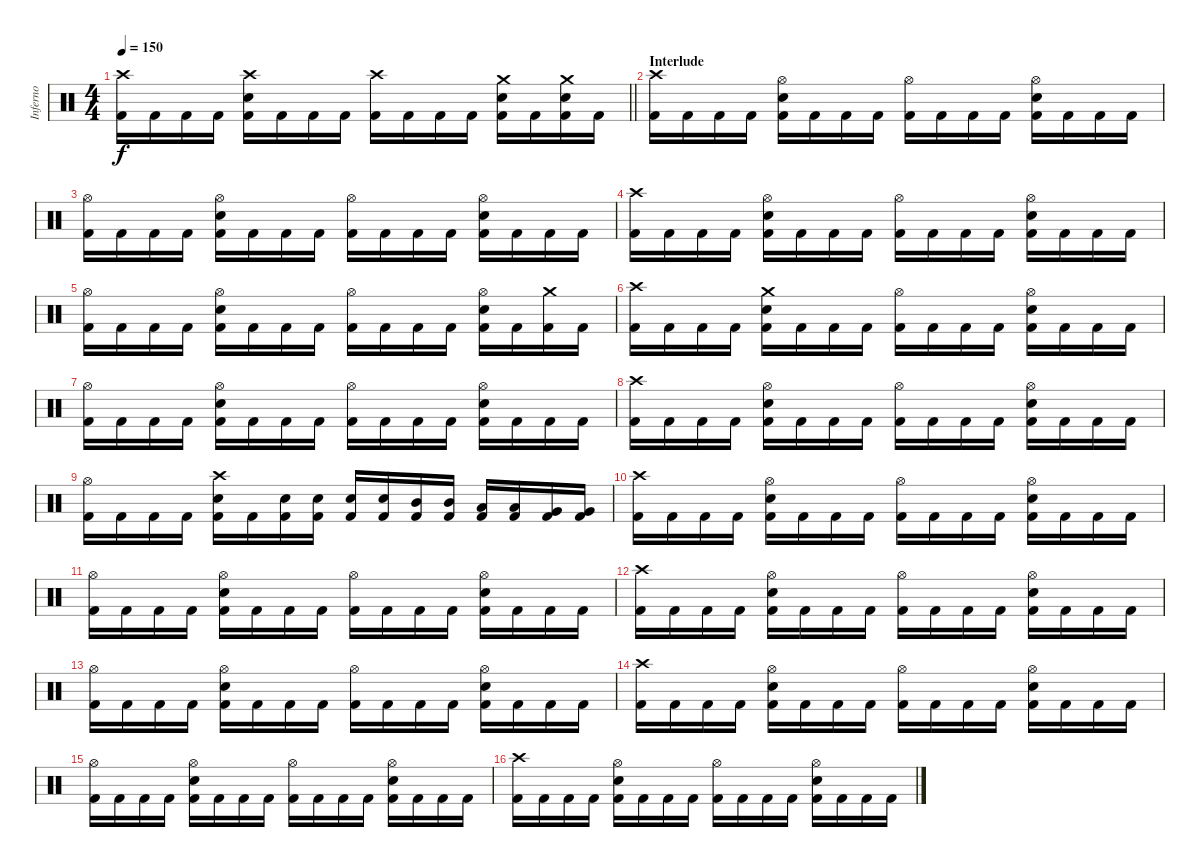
\track ("Inferno" "Inferno") {instrument percussion}
\staff {score}
\articulation defaults
\ts (4 4)
\tempo 150
\clef neutral
\barLineRight lightlight
\ks c
("Crash high (hit)" "Kick (hit) 2").16{dy f} "Kick (hit) 2".16 "Kick (hit) 2".16 "Kick (hit) 2".16 ("Crash high (hit)" "Electric Snare (hit)" "Kick (hit) 2").16 "Kick (hit) 2".16 "Kick (hit) 2".16 "Kick (hit) 2".16 ("Crash high (hit)" "Kick (hit) 2").16 "Kick (hit) 2".16 "Kick (hit) 2".16 "Kick (hit) 2".16 ("Crash medium (hit)" "Electric Snare (hit)" "Kick (hit) 2").16 "Kick (hit) 2".16 ("Crash medium (hit)" "Electric Snare (hit)" "Kick (hit) 2").16 "Kick (hit) 2".16 |
\section ("" "Interlude")
("Crash high (hit)" "Kick (hit) 2").16 "Kick (hit) 2".16 "Kick (hit) 2".16 "Kick (hit) 2".16 ("Hi-Hat (open)" "Electric Snare (hit)" "Kick (hit) 2").16 "Kick (hit) 2".16 "Kick (hit) 2".16 "Kick (hit) 2".16 ("Hi-Hat (open)" "Kick (hit) 2").16 "Kick (hit) 2".16 "Kick (hit) 2".16 "Kick (hit) 2".16 ("Hi-Hat (open)" "Electric Snare (hit)" "Kick (hit) 2").16 "Kick (hit) 2".16 "Kick (hit) 2".16 "Kick (hit) 2".16 |
("Hi-Hat (open)" "Kick (hit) 2").16 "Kick (hit) 2".16 "Kick (hit) 2".16 "Kick (hit) 2".16 ("Hi-Hat (open)" "Electric Snare (hit)" "Kick (hit) 2").16 "Kick (hit) 2".16 "Kick (hit) 2".16 "Kick (hit) 2".16 ("Hi-Hat (open)" "Kick (hit) 2").16 "Kick (hit) 2".16 "Kick (hit) 2".16 "Kick (hit) 2".16 ("Hi-Hat (open)" "Electric Snare (hit)" "Kick (hit) 2").16 "Kick (hit) 2".16 "Kick (hit) 2".16 "Kick (hit) 2".16 |
("Crash high (hit)" "Kick (hit) 2").16 "Kick (hit) 2".16 "Kick (hit) 2".16 "Kick (hit) 2".16 ("Hi-Hat (open)" "Electric Snare (hit)" "Kick (hit) 2").16 "Kick (hit) 2".16 "Kick (hit) 2".16 "Kick (hit) 2".16 ("Hi-Hat (open)" "Kick (hit) 2").16 "Kick (hit) 2".16 "Kick (hit) 2".16 "Kick (hit) 2".16 ("Hi-Hat (open)" "Electric Snare (hit)" "Kick (hit) 2").16 "Kick (hit) 2".16 "Kick (hit) 2".16 "Kick (hit) 2".16 |
("Hi-Hat (open)" "Kick (hit) 2").16 "Kick (hit) 2".16 "Kick (hit) 2".16 "Kick (hit) 2".16 ("Hi-Hat (open)" "Electric Snare (hit)" "Kick (hit) 2").16 "Kick (hit) 2".16 "Kick (hit) 2".16 "Kick (hit) 2".16 ("Hi-Hat (open)" "Kick (hit) 2").16 "Kick (hit) 2".16 "Kick (hit) 2".16 "Kick (hit) 2".16 ("Hi-Hat (open)" "Electric Snare (hit)" "Kick (hit) 2").16 "Kick (hit) 2".16 ("Crash medium (hit)" "Kick (hit) 2").16 "Kick (hit) 2".16 |
("Crash high (hit)" "Kick (hit) 2").16 "Kick (hit) 2".16 "Kick (hit) 2".16 "Kick (hit) 2".16 ("Crash medium (hit)" "Electric Snare (hit)" "Kick (hit) 2").16 "Kick (hit) 2".16 "Kick (hit) 2".16 "Kick (hit) 2".16 ("Hi-Hat (open)" "Kick (hit) 2").16 "Kick (hit) 2".16 "Kick (hit) 2".16 "Kick (hit) 2".16 ("Hi-Hat (open)" "Electric Snare (hit)" "Kick (hit) 2").16 "Kick (hit) 2".16 "Kick (hit) 2".16 "Kick (hit) 2".16 |
("Hi-Hat (open)" "Kick (hit) 2").16 "Kick (hit) 2".16 "Kick (hit) 2".16 "Kick (hit) 2".16 ("Hi-Hat (open)" "Electric Snare (hit)" "Kick (hit) 2").16 "Kick (hit) 2".16 "Kick (hit) 2".16 "Kick (hit) 2".16 ("Hi-Hat (open)" "Kick (hit) 2").16 "Kick (hit) 2".16 "Kick (hit) 2".16 "Kick (hit) 2".16 ("Hi-Hat (open)" "Electric Snare (hit)" "Kick (hit) 2").16 "Kick (hit) 2".16 "Kick (hit) 2".16 "Kick (hit) 2".16 |
("Crash high (hit)" "Kick (hit) 2").16 "Kick (hit) 2".16 "Kick (hit) 2".16 "Kick (hit) 2".16 ("Hi-Hat (open)" "Electric Snare (hit)" "Kick (hit) 2").16 "Kick (hit) 2".16 "Kick (hit) 2".16 "Kick (hit) 2".16 ("Hi-Hat (open)" "Kick (hit) 2").16 "Kick (hit) 2".16 "Kick (hit) 2".16 "Kick (hit) 2".16 ("Hi-Hat (open)" "Electric Snare (hit)" "Kick (hit) 2").16 "Kick (hit) 2".16 "Kick (hit) 2".16 "Kick (hit) 2".16 |
("Hi-Hat (open)" "Kick (hit) 2").16 "Kick (hit) 2".16 "Kick (hit) 2".16 "Kick (hit) 2".16 ("Crash high (hit)" "Electric Snare (hit)" "Kick (hit) 2").16 "Kick (hit) 2".16 ("Electric Snare (hit)" "Kick (hit) 2").16 ("Electric Snare (hit)" "Kick (hit) 2").16 ("Electric Snare (hit)" "Kick (hit) 2").16 ("Electric Snare (hit)" "Kick (hit) 2").16 ("Mid Tom (hit)" "Kick (hit) 2").16 ("Mid Tom (hit)" "Kick (hit) 2").16 ("Low Tom (hit)" "Kick (hit) 2").16 ("Low Tom (hit)" "Kick (hit) 2").16 ("Very Low Tom (hit)" "Kick (hit) 2").16 ("Very Low Tom (hit)" "Kick (hit) 2").16 |
("Crash high (hit)" "Kick (hit) 2").16 "Kick (hit) 2".16 "Kick (hit) 2".16 "Kick (hit) 2".16 ("Hi-Hat (open)" "Electric Snare (hit)" "Kick (hit) 2").16 "Kick (hit) 2".16 "Kick (hit) 2".16 "Kick (hit) 2".16 ("Hi-Hat (open)" "Kick (hit) 2").16 "Kick (hit) 2".16 "Kick (hit) 2".16 "Kick (hit) 2".16 ("Hi-Hat (open)" "Electric Snare (hit)" "Kick (hit) 2").16 "Kick (hit) 2".16 "Kick (hit) 2".16 "Kick (hit) 2".16 |
("Hi-Hat (open)" "Kick (hit) 2").16 "Kick (hit) 2".16 "Kick (hit) 2".16 "Kick (hit) 2".16 ("Hi-Hat (open)" "Electric Snare (hit)" "Kick (hit) 2").16 "Kick (hit) 2".16 "Kick (hit) 2".16 "Kick (hit) 2".16 ("Hi-Hat (open)" "Kick (hit) 2").16 "Kick (hit) 2".16 "Kick (hit) 2".16 "Kick (hit) 2".16 ("Hi-Hat (open)" "Electric Snare (hit)" "Kick (hit) 2").16 "Kick (hit) 2".16 "Kick (hit) 2".16 "Kick (hit) 2".16 |
("Crash high (hit)" "Kick (hit) 2").16 "Kick (hit) 2".16 "Kick (hit) 2".16 "Kick (hit) 2".16 ("Hi-Hat (open)" "Electric Snare (hit)" "Kick (hit) 2").16 "Kick (hit) 2".16 "Kick (hit) 2".16 "Kick (hit) 2".16 ("Hi-Hat (open)" "Kick (hit) 2").16 "Kick (hit) 2".16 "Kick (hit) 2".16 "Kick (hit) 2".16 ("Hi-Hat (open)" "Electric Snare (hit)" "Kick (hit) 2").16 "Kick (hit) 2".16 "Kick (hit) 2".16 "Kick (hit) 2".16 |
("Hi-Hat (open)" "Kick (hit) 2").16 "Kick (hit) 2".16 "Kick (hit) 2".16 "Kick (hit) 2".16 ("Hi-Hat (open)" "Electric Snare (hit)" "Kick (hit) 2").16 "Kick (hit) 2".16 "Kick (hit) 2".16 "Kick (hit) 2".16 ("Hi-Hat (open)" "Kick (hit) 2").16 "Kick (hit) 2".16 "Kick (hit) 2".16 "Kick (hit) 2".16 ("Hi-Hat (open)" "Electric Snare (hit)" "Kick (hit) 2").16 "Kick (hit) 2".16 "Kick (hit) 2".16 "Kick (hit) 2".16 |
("Crash high (hit)" "Kick (hit) 2").16 "Kick (hit) 2".16 "Kick (hit) 2".16 "Kick (hit) 2".16 ("Hi-Hat (open)" "Electric Snare (hit)" "Kick (hit) 2").16 "Kick (hit) 2".16 "Kick (hit) 2".16 "Kick (hit) 2".16 ("Hi-Hat (open)" "Kick (hit) 2").16 "Kick (hit) 2".16 "Kick (hit) 2".16 "Kick (hit) 2".16 ("Hi-Hat (open)" "Electric Snare (hit)" "Kick (hit) 2").16 "Kick (hit) 2".16 "Kick (hit) 2".16 "Kick (hit) 2".16 |
("Hi-Hat (open)" "Kick (hit) 2").16 "Kick (hit) 2".16 "Kick (hit) 2".16 "Kick (hit) 2".16 ("Hi-Hat (open)" "Electric Snare (hit)" "Kick (hit) 2").16 "Kick (hit) 2".16 "Kick (hit) 2".16 "Kick (hit) 2".16 ("Hi-Hat (open)" "Kick (hit) 2").16 "Kick (hit) 2".16 "Kick (hit) 2".16 "Kick (hit) 2".16 ("Hi-Hat (open)" "Electric Snare (hit)" "Kick (hit) 2").16 "Kick (hit) 2".16 "Kick (hit) 2".16 "Kick (hit) 2".16 |
("Crash high (hit)" "Kick (hit) 2").16 "Kick (hit) 2".16 "Kick (hit) 2".16 "Kick (hit) 2".16 ("Hi-Hat (open)" "Electric Snare (hit)" "Kick (hit) 2").16 "Kick (hit) 2".16 "Kick (hit) 2".16 "Kick (hit) 2".16 ("Hi-Hat (open)" "Kick (hit) 2").16 "Kick (hit) 2".16 "Kick (hit) 2".16 "Kick (hit) 2".16 ("Hi-Hat (open)" "Electric Snare (hit)" "Kick (hit) 2").16 "Kick (hit) 2".16 "Kick (hit) 2".16 "Kick (hit) 2".16
